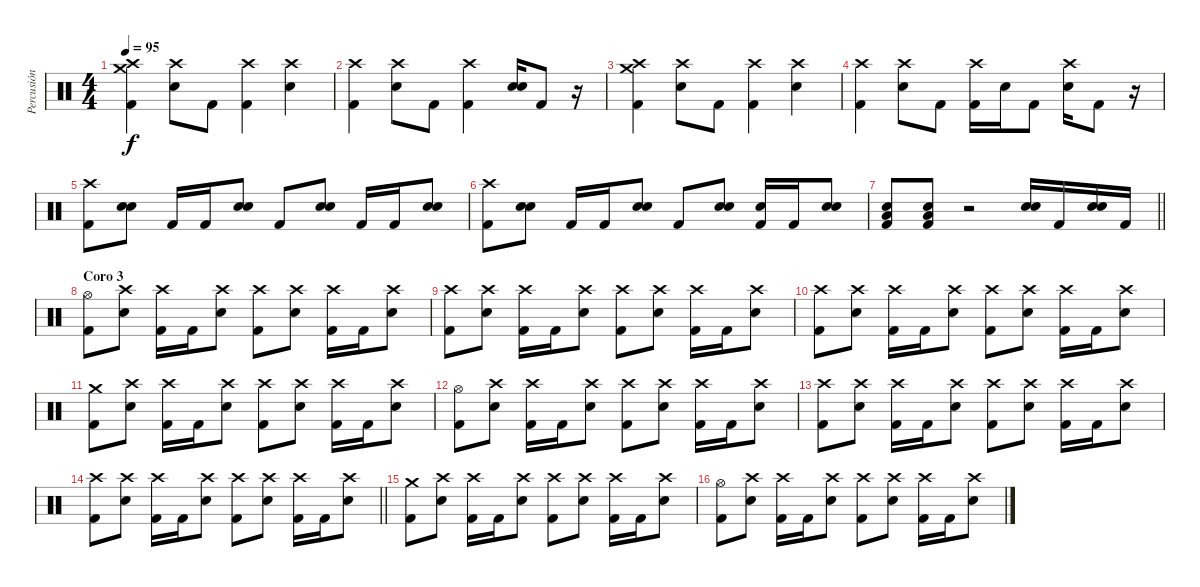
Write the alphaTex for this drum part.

\track ("Percusión" "Percusión") {instrument percussion}
\staff {score}
\articulation defaults
\ts (4 4)
\tempo 95
\clef neutral
\ks c
("Crash high (hit)" "Crash medium (hit)" "Kick (hit) 2").4{dy f} ("Crash high (hit)" "Electric Snare (hit)").8 "Kick (hit) 2".8 ("Crash high (hit)" "Kick (hit) 2").4 ("Crash high (hit)" "Electric Snare (hit)").4 |
("Crash high (hit)" "Kick (hit) 2").4 ("Crash high (hit)" "Electric Snare (hit)").8 "Kick (hit) 2".8 ("Crash high (hit)" "Kick (hit) 2").4 ("Electric Snare (hit)" "Electric Snare (hit)").16 "Kick (hit) 2".8 r.16 |
("Crash high (hit)" "Crash medium (hit)" "Kick (hit) 2").4 ("Crash high (hit)" "Electric Snare (hit)").8 "Kick (hit) 2".8 ("Crash high (hit)" "Kick (hit) 2").4 ("Crash high (hit)" "Electric Snare (hit)").4 |
("Crash high (hit)" "Kick (hit) 2").4 ("Crash high (hit)" "Electric Snare (hit)").8 "Kick (hit) 2".8 ("Crash high (hit)" "Kick (hit) 2").16 "Electric Snare (hit)".16 "Kick (hit) 2".8 ("Crash high (hit)" "Electric Snare (hit)").16 "Kick (hit) 2".8 r.16 |
("Crash high (hit)" "Kick (hit) 2").8 ("Electric Snare (hit)" "Electric Snare (hit)").8 "Kick (hit) 2".16 "Kick (hit) 2".16 ("Electric Snare (hit)" "Electric Snare (hit)").8 "Kick (hit) 2".8 ("Electric Snare (hit)" "Electric Snare (hit)").8 "Kick (hit) 2".16 "Kick (hit) 2".16 ("Electric Snare (hit)" "Electric Snare (hit)").8 |
("Crash high (hit)" "Kick (hit) 2").8 ("Electric Snare (hit)" "Electric Snare (hit)").8 "Kick (hit) 2".16 "Kick (hit) 2".16 ("Electric Snare (hit)" "Electric Snare (hit)").8 "Kick (hit) 2".8 ("Electric Snare (hit)" "Electric Snare (hit)").8 ("Electric Snare (hit)" "Kick (hit) 2").16 "Kick (hit) 2".16 ("Electric Snare (hit)" "Electric Snare (hit)").8 |
\barLineRight lightlight
("Kick (hit) 2" "Low Floor Tom (hit)" "Electric Snare (hit)").8 ("Kick (hit) 2" "Low Floor Tom (hit)" "Electric Snare (hit)").8 r.2 ("Electric Snare (hit)" "Electric Snare (hit)").16 "Kick (hit) 2".16 ("Electric Snare (hit)" "Electric Snare (hit)").16 "Kick (hit) 2".16 |
\section ("" "Coro 3")
("Hi-Hat (open)" "Kick (hit) 2").8 ("Crash high (hit)" "Electric Snare (hit)").8 ("Crash high (hit)" "Kick (hit) 2").16 "Kick (hit) 2".16 ("Crash high (hit)" "Electric Snare (hit)").8 ("Crash high (hit)" "Kick (hit) 2").8 ("Crash high (hit)" "Electric Snare (hit)").8 ("Crash high (hit)" "Kick (hit) 2").16 "Kick (hit) 2".16 ("Crash high (hit)" "Electric Snare (hit)").8 |
("Crash high (hit)" "Kick (hit) 2").8 ("Crash high (hit)" "Electric Snare (hit)").8 ("Crash high (hit)" "Kick (hit) 2").16 "Kick (hit) 2".16 ("Crash high (hit)" "Electric Snare (hit)").8 ("Crash high (hit)" "Kick (hit) 2").8 ("Crash high (hit)" "Electric Snare (hit)").8 ("Crash high (hit)" "Kick (hit) 2").16 "Kick (hit) 2".16 ("Crash high (hit)" "Electric Snare (hit)").8 |
("Crash high (hit)" "Kick (hit) 2").8 ("Crash high (hit)" "Electric Snare (hit)").8 ("Crash high (hit)" "Kick (hit) 2").16 "Kick (hit) 2".16 ("Crash high (hit)" "Electric Snare (hit)").8 ("Crash high (hit)" "Kick (hit) 2").8 ("Crash high (hit)" "Electric Snare (hit)").8 ("Crash high (hit)" "Kick (hit) 2").16 "Kick (hit) 2".16 ("Crash high (hit)" "Electric Snare (hit)").8 |
("Crash medium (hit)" "Kick (hit) 2").8 ("Crash high (hit)" "Electric Snare (hit)").8 ("Crash high (hit)" "Kick (hit) 2").16 "Kick (hit) 2".16 ("Crash high (hit)" "Electric Snare (hit)").8 ("Crash high (hit)" "Kick (hit) 2").8 ("Crash high (hit)" "Electric Snare (hit)").8 ("Crash high (hit)" "Kick (hit) 2").16 "Kick (hit) 2".16 ("Crash high (hit)" "Electric Snare (hit)").8 |
("Hi-Hat (open)" "Kick (hit) 2").8 ("Crash high (hit)" "Electric Snare (hit)").8 ("Crash high (hit)" "Kick (hit) 2").16 "Kick (hit) 2".16 ("Crash high (hit)" "Electric Snare (hit)").8 ("Crash high (hit)" "Kick (hit) 2").8 ("Crash high (hit)" "Electric Snare (hit)").8 ("Crash high (hit)" "Kick (hit) 2").16 "Kick (hit) 2".16 ("Crash high (hit)" "Electric Snare (hit)").8 |
("Crash high (hit)" "Kick (hit) 2").8 ("Crash high (hit)" "Electric Snare (hit)").8 ("Crash high (hit)" "Kick (hit) 2").16 "Kick (hit) 2".16 ("Crash high (hit)" "Electric Snare (hit)").8 ("Crash high (hit)" "Kick (hit) 2").8 ("Crash high (hit)" "Electric Snare (hit)").8 ("Crash high (hit)" "Kick (hit) 2").16 "Kick (hit) 2".16 ("Crash high (hit)" "Electric Snare (hit)").8 |
\barLineRight lightlight
("Crash high (hit)" "Kick (hit) 2").8 ("Crash high (hit)" "Electric Snare (hit)").8 ("Crash high (hit)" "Kick (hit) 2").16 "Kick (hit) 2".16 ("Crash high (hit)" "Electric Snare (hit)").8 ("Crash high (hit)" "Kick (hit) 2").8 ("Crash high (hit)" "Electric Snare (hit)").8 ("Crash high (hit)" "Kick (hit) 2").16 "Kick (hit) 2".16 ("Crash high (hit)" "Electric Snare (hit)").8 |
("Crash medium (hit)" "Kick (hit) 2").8 ("Crash high (hit)" "Electric Snare (hit)").8 ("Crash high (hit)" "Kick (hit) 2").16 "Kick (hit) 2".16 ("Crash high (hit)" "Electric Snare (hit)").8 ("Crash high (hit)" "Kick (hit) 2").8 ("Crash high (hit)" "Electric Snare (hit)").8 ("Crash high (hit)" "Kick (hit) 2").16 "Kick (hit) 2".16 ("Crash high (hit)" "Electric Snare (hit)").8 |
("Hi-Hat (open)" "Kick (hit) 2").8 ("Crash high (hit)" "Electric Snare (hit)").8 ("Crash high (hit)" "Kick (hit) 2").16 "Kick (hit) 2".16 ("Crash high (hit)" "Electric Snare (hit)").8 ("Crash high (hit)" "Kick (hit) 2").8 ("Crash high (hit)" "Electric Snare (hit)").8 ("Crash high (hit)" "Kick (hit) 2").16 "Kick (hit) 2".16 ("Crash high (hit)" "Electric Snare (hit)").8
